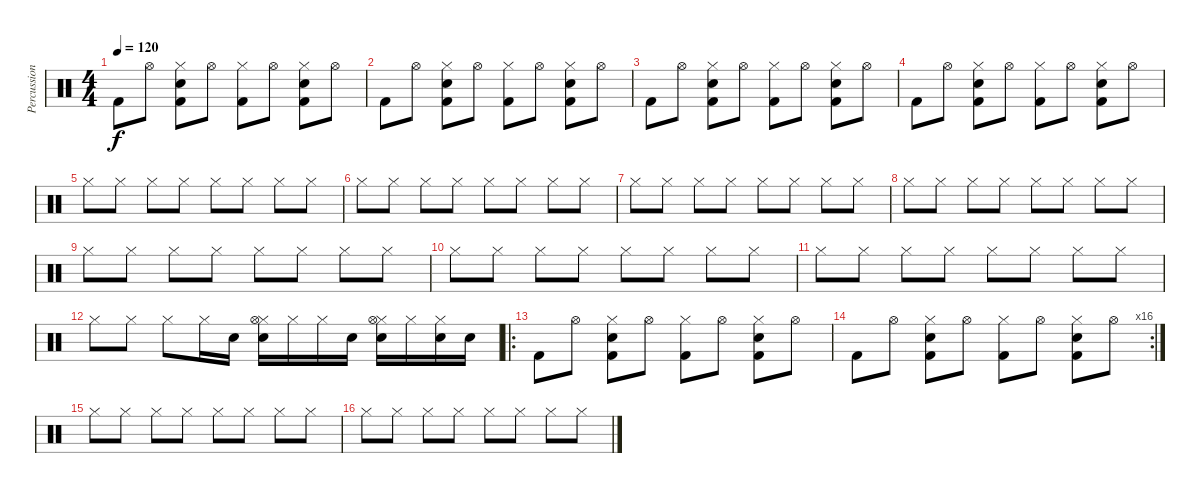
\track ("Percussions" "Percussion") {instrument percussion}
\staff {score}
\articulation defaults
\ts (4 4)
\tempo 120
\clef neutral
\ks c "Kick (hit) 2".8{dy f} "Hi-Hat (open)".8
("Kick (hit) 2" "Hi-Hat (closed)" "Electric Snare (hit)").8 "Hi-Hat (open)".8 ("Kick (hit) 2" "Hi-Hat (closed)").8 "Hi-Hat (open)".8 ("Kick (hit) 2" "Hi-Hat (closed)" "Electric Snare (hit)").8 "Hi-Hat (open)".8 |
"Kick (hit) 2".8 "Hi-Hat (open)".8 ("Kick (hit) 2" "Hi-Hat (closed)" "Electric Snare (hit)").8 "Hi-Hat (open)".8 ("Kick (hit) 2" "Hi-Hat (closed)").8 "Hi-Hat (open)".8 ("Kick (hit) 2" "Hi-Hat (closed)" "Electric Snare (hit)").8 "Hi-Hat (open)".8 |
"Kick (hit) 2".8 "Hi-Hat (open)".8 ("Kick (hit) 2" "Hi-Hat (closed)" "Electric Snare (hit)").8 "Hi-Hat (open)".8 ("Kick (hit) 2" "Hi-Hat (closed)").8 "Hi-Hat (open)".8 ("Kick (hit) 2" "Hi-Hat (closed)" "Electric Snare (hit)").8 "Hi-Hat (open)".8 |
"Kick (hit) 2".8 "Hi-Hat (open)".8 ("Kick (hit) 2" "Hi-Hat (closed)" "Electric Snare (hit)").8 "Hi-Hat (open)".8 ("Kick (hit) 2" "Hi-Hat (closed)").8 "Hi-Hat (open)".8 ("Kick (hit) 2" "Hi-Hat (closed)" "Electric Snare (hit)").8 "Hi-Hat (open)".8 |
"Hi-Hat (closed)".8 "Hi-Hat (closed)".8 "Hi-Hat (closed)".8 "Hi-Hat (closed)".8 "Hi-Hat (closed)".8 "Hi-Hat (closed)".8 "Hi-Hat (closed)".8 "Hi-Hat (closed)".8 |
"Hi-Hat (closed)".8 "Hi-Hat (closed)".8 "Hi-Hat (closed)".8 "Hi-Hat (closed)".8 "Hi-Hat (closed)".8 "Hi-Hat (closed)".8 "Hi-Hat (closed)".8 "Hi-Hat (closed)".8 |
"Hi-Hat (closed)".8 "Hi-Hat (closed)".8 "Hi-Hat (closed)".8 "Hi-Hat (closed)".8 "Hi-Hat (closed)".8 "Hi-Hat (closed)".8 "Hi-Hat (closed)".8 "Hi-Hat (closed)".8 |
"Hi-Hat (closed)".8 "Hi-Hat (closed)".8 "Hi-Hat (closed)".8 "Hi-Hat (closed)".8 "Hi-Hat (closed)".8 "Hi-Hat (closed)".8 "Hi-Hat (closed)".8 "Hi-Hat (closed)".8 |
"Hi-Hat (closed)".8 "Hi-Hat (closed)".8 "Hi-Hat (closed)".8 "Hi-Hat (closed)".8 "Hi-Hat (closed)".8 "Hi-Hat (closed)".8 "Hi-Hat (closed)".8 "Hi-Hat (closed)".8 |
"Hi-Hat (closed)".8 "Hi-Hat (closed)".8 "Hi-Hat (closed)".8 "Hi-Hat (closed)".8 "Hi-Hat (closed)".8 "Hi-Hat (closed)".8 "Hi-Hat (closed)".8 "Hi-Hat (closed)".8 |
"Hi-Hat (closed)".8 "Hi-Hat (closed)".8 "Hi-Hat (closed)".8 "Hi-Hat (closed)".8 "Hi-Hat (closed)".8 "Hi-Hat (closed)".8 "Hi-Hat (closed)".8 "Hi-Hat (closed)".8 |
"Hi-Hat (closed)".8 "Hi-Hat (closed)".8 "Hi-Hat (closed)".8 "Hi-Hat (closed)".16 "Electric Snare (hit)".16 ("Hi-Hat (closed)" "Electric Snare (hit)" "Hi-Hat (open)").16 "Hi-Hat (closed)".16 "Hi-Hat (closed)".16 "Electric Snare (hit)".16 ("Hi-Hat (closed)" "Electric Snare (hit)" "Hi-Hat (open)").16 "Hi-Hat (closed)".16 ("Hi-Hat (closed)" "Electric Snare (hit)").16 "Electric Snare (hit)".16 |
\ro "Kick (hit) 2".8 "Hi-Hat (open)".8
("Kick (hit) 2" "Hi-Hat (closed)" "Electric Snare (hit)").8 "Hi-Hat (open)".8 ("Kick (hit) 2" "Hi-Hat (closed)").8 "Hi-Hat (open)".8 ("Kick (hit) 2" "Hi-Hat (closed)" "Electric Snare (hit)").8 "Hi-Hat (open)".8 |
\rc 16 "Kick (hit) 2".8 "Hi-Hat (open)".8
("Kick (hit) 2" "Hi-Hat (closed)" "Electric Snare (hit)").8 "Hi-Hat (open)".8 ("Kick (hit) 2" "Hi-Hat (closed)").8 "Hi-Hat (open)".8 ("Kick (hit) 2" "Hi-Hat (closed)" "Electric Snare (hit)").8 "Hi-Hat (open)".8 |
"Hi-Hat (closed)".8 "Hi-Hat (closed)".8 "Hi-Hat (closed)".8 "Hi-Hat (closed)".8 "Hi-Hat (closed)".8 "Hi-Hat (closed)".8 "Hi-Hat (closed)".8 "Hi-Hat (closed)".8 |
"Hi-Hat (closed)".8 "Hi-Hat (closed)".8 "Hi-Hat (closed)".8 "Hi-Hat (closed)".8 "Hi-Hat (closed)".8 "Hi-Hat (closed)".8 "Hi-Hat (closed)".8 "Hi-Hat (closed)".8
